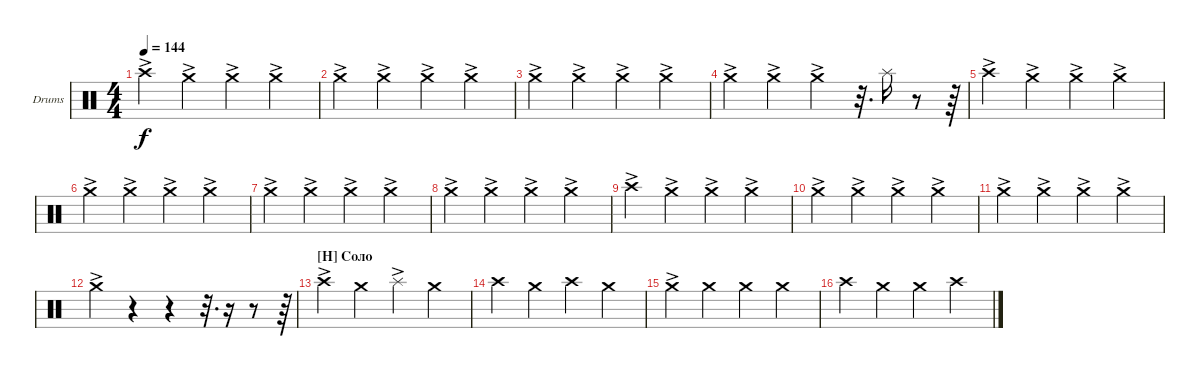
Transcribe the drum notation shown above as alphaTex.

\defaultSystemsLayout 4
\bracketExtendMode groupsimilarinstruments
\firstSystemTrackNameOrientation horizontal
\otherSystemsTrackNameOrientation horizontal
\track ("Cymbals" "Drums") {instrument percussion}
\staff {score}
\articulation defaults
\ts (4 4)
\tempo 144
\clef neutral
\ks c "Crash high (hit)"{ac}.4{dy f} "Crash medium (hit)"{ac}.4 "Crash medium (hit)"{ac}.4 "Crash medium (hit)"{ac}.4
|
"Crash medium (hit)"{ac}.4 "Crash medium (hit)"{ac}.4 "Crash medium (hit)"{ac}.4 "Crash medium (hit)"{ac}.4 |
"Crash medium (hit)"{ac}.4 "Crash medium (hit)"{ac}.4 "Crash medium (hit)"{ac}.4 "Crash medium (hit)"{ac}.4 |
"Crash medium (hit)"{ac}.4 "Crash medium (hit)"{ac}.4 "Crash medium (hit)"{ac}.4 r.32{d} "Splash (hit)".16 r.8 r.64 |
"Crash high (hit)"{ac}.4 "Crash medium (hit)"{ac}.4 "Crash medium (hit)"{ac}.4 "Crash medium (hit)"{ac}.4 |
"Crash medium (hit)"{ac}.4 "Crash medium (hit)"{ac}.4 "Crash medium (hit)"{ac}.4 "Crash medium (hit)"{ac}.4 |
"Crash medium (hit)"{ac}.4 "Crash medium (hit)"{ac}.4 "Crash medium (hit)"{ac}.4 "Crash medium (hit)"{ac}.4 |
"Crash medium (hit)"{ac}.4 "Crash medium (hit)"{ac}.4 "Crash medium (hit)"{ac}.4 "Crash medium (hit)"{ac}.4 |
"Crash high (hit)"{ac}.4 "Crash medium (hit)"{ac}.4 "Crash medium (hit)"{ac}.4 "Crash medium (hit)"{ac}.4 |
"Crash medium (hit)"{ac}.4 "Crash medium (hit)"{ac}.4 "Crash medium (hit)"{ac}.4 "Crash medium (hit)"{ac}.4 |
"Crash medium (hit)"{ac}.4 "Crash medium (hit)"{ac}.4 "Crash medium (hit)"{ac}.4 "Crash medium (hit)"{ac}.4 |
"Crash medium (hit)"{ac}.4 r.4 r.4 r.32{d} r.16 r.8 r.64 |
\section ("H" "Соло")
"Crash high (hit)"{ac}.4 "Crash medium (hit)".4 "Splash (hit)"{ac}.4 "Crash medium (hit)".4 |
"Crash high (hit)".4 "Crash medium (hit)".4 "Crash high (hit)".4 "Crash medium (hit)".4 |
"Crash medium (hit)"{ac}.4 "Crash medium (hit)".4 "Crash medium (hit)".4 "Crash medium (hit)".4 |
"Crash high (hit)".4 "Crash medium (hit)".4 "Crash medium (hit)".4 "Crash high (hit)".4
